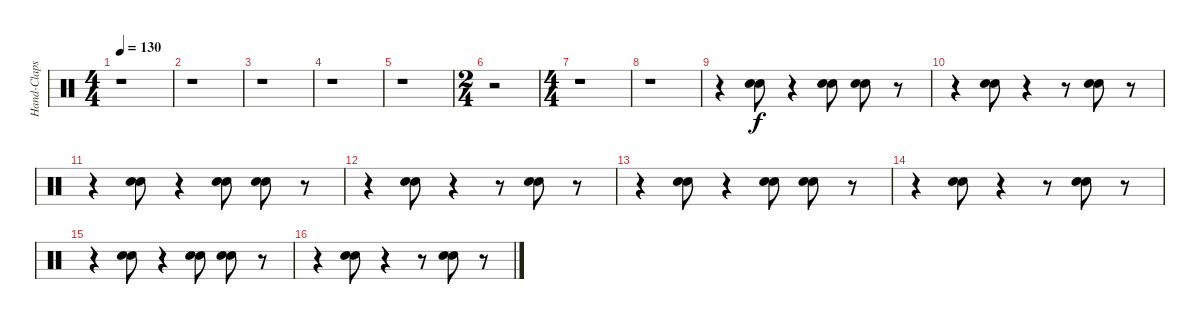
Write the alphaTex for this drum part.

\track ("Hand-Claps" "Hand-Claps") {instrument percussion}
\staff {score}
\articulation defaults
\ts (4 4)
\tempo 130
\clef neutral
\ks c
r.1{dy f} |
r.1 |
r.1 |
r.1 |
r.1 |
\ts (2 4)
r.2 |
\ts (4 4)
r.1 |
r.1 |
r.4 ("Hand Clap (hit)" "Hand Clap (hit)").8 r.4 ("Hand Clap (hit)" "Hand Clap (hit)").8 ("Hand Clap (hit)" "Hand Clap (hit)").8 r.8 |
r.4 ("Hand Clap (hit)" "Hand Clap (hit)").8 r.4 r.8 ("Hand Clap (hit)" "Hand Clap (hit)").8 r.8 |
r.4 ("Hand Clap (hit)" "Hand Clap (hit)").8 r.4 ("Hand Clap (hit)" "Hand Clap (hit)").8 ("Hand Clap (hit)" "Hand Clap (hit)").8 r.8 |
r.4 ("Hand Clap (hit)" "Hand Clap (hit)").8 r.4 r.8 ("Hand Clap (hit)" "Hand Clap (hit)").8 r.8 |
r.4 ("Hand Clap (hit)" "Hand Clap (hit)").8 r.4 ("Hand Clap (hit)" "Hand Clap (hit)").8 ("Hand Clap (hit)" "Hand Clap (hit)").8 r.8 |
r.4 ("Hand Clap (hit)" "Hand Clap (hit)").8 r.4 r.8 ("Hand Clap (hit)" "Hand Clap (hit)").8 r.8 |
r.4 ("Hand Clap (hit)" "Hand Clap (hit)").8 r.4 ("Hand Clap (hit)" "Hand Clap (hit)").8 ("Hand Clap (hit)" "Hand Clap (hit)").8 r.8 |
r.4 ("Hand Clap (hit)" "Hand Clap (hit)").8 r.4 r.8 ("Hand Clap (hit)" "Hand Clap (hit)").8 r.8
